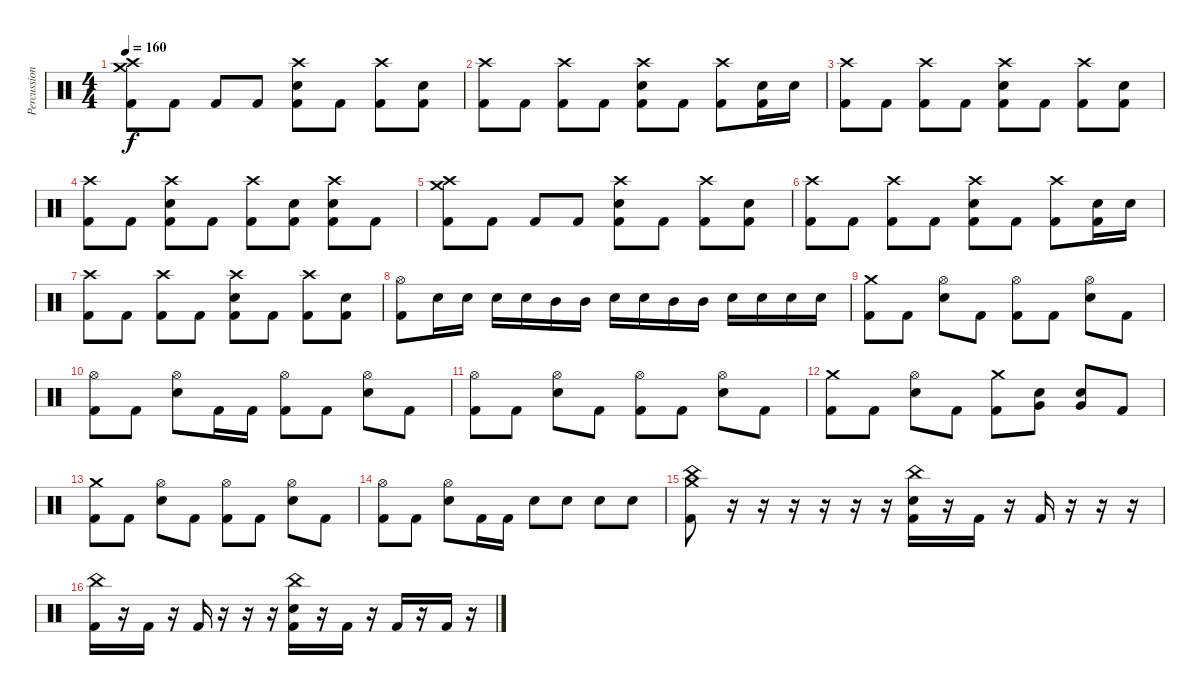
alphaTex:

\track ("Percussion" "Percussion") {instrument percussion}
\staff {score}
\articulation defaults
\ts (4 4)
\tempo 160
\clef neutral
\ks c
("Crash medium (hit)" "Crash high (hit)" "Kick (hit) 2").8{dy f} "Kick (hit) 2".8 "Kick (hit) 2".8 "Kick (hit) 2".8 ("Crash high (hit)" "Electric Snare (hit)" "Kick (hit) 2").8 "Kick (hit) 2".8 ("Crash high (hit)" "Kick (hit) 2").8 ("Electric Snare (hit)" "Kick (hit) 2").8 |
("Crash high (hit)" "Kick (hit) 2").8 "Kick (hit) 2".8 ("Crash high (hit)" "Kick (hit) 2").8 "Kick (hit) 2".8 ("Crash high (hit)" "Electric Snare (hit)" "Kick (hit) 2").8 "Kick (hit) 2".8 ("Crash high (hit)" "Kick (hit) 2").8 ("Electric Snare (hit)" "Kick (hit) 2").16 "Electric Snare (hit)".16 |
("Crash high (hit)" "Kick (hit) 2").8 "Kick (hit) 2".8 ("Crash high (hit)" "Kick (hit) 2").8 "Kick (hit) 2".8 ("Crash high (hit)" "Electric Snare (hit)" "Kick (hit) 2").8 "Kick (hit) 2".8 ("Crash high (hit)" "Kick (hit) 2").8 ("Electric Snare (hit)" "Kick (hit) 2").8 |
("Crash high (hit)" "Kick (hit) 2").8 "Kick (hit) 2".8 ("Crash high (hit)" "Electric Snare (hit)" "Kick (hit) 2").8 "Kick (hit) 2".8 ("Crash high (hit)" "Kick (hit) 2").8 ("Electric Snare (hit)" "Kick (hit) 2").8 ("Crash high (hit)" "Electric Snare (hit)" "Kick (hit) 2").8 "Kick (hit) 2".8 |
("Crash medium (hit)" "Crash high (hit)" "Kick (hit) 2").8 "Kick (hit) 2".8 "Kick (hit) 2".8 "Kick (hit) 2".8 ("Crash high (hit)" "Electric Snare (hit)" "Kick (hit) 2").8 "Kick (hit) 2".8 ("Crash high (hit)" "Kick (hit) 2").8 ("Electric Snare (hit)" "Kick (hit) 2").8 |
("Crash high (hit)" "Kick (hit) 2").8 "Kick (hit) 2".8 ("Crash high (hit)" "Kick (hit) 2").8 "Kick (hit) 2".8 ("Crash high (hit)" "Electric Snare (hit)" "Kick (hit) 2").8 "Kick (hit) 2".8 ("Crash high (hit)" "Kick (hit) 2").8 ("Electric Snare (hit)" "Kick (hit) 2").16 "Electric Snare (hit)".16 |
("Crash high (hit)" "Kick (hit) 2").8 "Kick (hit) 2".8 ("Crash high (hit)" "Kick (hit) 2").8 "Kick (hit) 2".8 ("Crash high (hit)" "Electric Snare (hit)" "Kick (hit) 2").8 "Kick (hit) 2".8 ("Crash high (hit)" "Kick (hit) 2").8 ("Electric Snare (hit)" "Kick (hit) 2").8 |
("Hi-Hat (open)" "Kick (hit) 2").8 "Electric Snare (hit)".16 "Electric Snare (hit)".16 "Electric Snare (hit)".16 "Electric Snare (hit)".16 "Mid Tom (hit)".16 "Mid Tom (hit)".16 "Electric Snare (hit)".16 "Electric Snare (hit)".16 "Mid Tom (hit)".16 "Mid Tom (hit)".16 "Electric Snare (hit)".16 "Electric Snare (hit)".16 "Electric Snare (hit)".16 "Electric Snare (hit)".16 |
("Crash medium (hit)" "Kick (hit) 2").8 "Kick (hit) 2".8 ("Hi-Hat (open)" "Electric Snare (hit)").8 "Kick (hit) 2".8 ("Hi-Hat (open)" "Kick (hit) 2").8 "Kick (hit) 2".8 ("Hi-Hat (open)" "Electric Snare (hit)").8 "Kick (hit) 2".8 |
("Hi-Hat (open)" "Kick (hit) 2").8 "Kick (hit) 2".8 ("Hi-Hat (open)" "Electric Snare (hit)").8 "Kick (hit) 2".16 "Kick (hit) 2".16 ("Hi-Hat (open)" "Kick (hit) 2").8 "Kick (hit) 2".8 ("Hi-Hat (open)" "Electric Snare (hit)").8 "Kick (hit) 2".8 |
("Hi-Hat (open)" "Kick (hit) 2").8 "Kick (hit) 2".8 ("Hi-Hat (open)" "Electric Snare (hit)").8 "Kick (hit) 2".8 ("Hi-Hat (open)" "Kick (hit) 2").8 "Kick (hit) 2".8 ("Hi-Hat (open)" "Electric Snare (hit)").8 "Kick (hit) 2".8 |
("Crash medium (hit)" "Kick (hit) 2").8 "Kick (hit) 2".8 ("Hi-Hat (open)" "Electric Snare (hit)").8 "Kick (hit) 2".8 ("Crash medium (hit)" "Kick (hit) 2").8 ("Electric Snare (hit)" "Very Low Tom (hit)").8 ("Electric Snare (hit)" "Very Low Tom (hit)").8 "Kick (hit) 2".8 |
("Crash medium (hit)" "Kick (hit) 2").8 "Kick (hit) 2".8 ("Hi-Hat (open)" "Electric Snare (hit)").8 "Kick (hit) 2".8 ("Hi-Hat (open)" "Kick (hit) 2").8 "Kick (hit) 2".8 ("Hi-Hat (open)" "Electric Snare (hit)").8 "Kick (hit) 2".8 |
("Hi-Hat (open)" "Kick (hit) 2").8 "Kick (hit) 2".8 ("Hi-Hat (open)" "Electric Snare (hit)").8 "Kick (hit) 2".16 "Kick (hit) 2".16 "Electric Snare (hit)".8 "Electric Snare (hit)".8 "Electric Snare (hit)".8 "Electric Snare (hit)".8 |
("Crash medium (hit)" "China (hit)" "Kick (hit) 2").8 r.16 r.16 r.16 r.16 r.16 r.16 ("China (hit)" "Electric Snare (hit)" "Kick (hit) 2").16 r.16 "Kick (hit) 2".16 r.16 "Kick (hit) 2".16 r.16 r.16 r.16 |
("China (hit)" "Kick (hit) 2").16 r.16 "Kick (hit) 2".16 r.16 "Kick (hit) 2".16 r.16 r.16 r.16 ("China (hit)" "Electric Snare (hit)" "Kick (hit) 2").16 r.16 "Kick (hit) 2".16 r.16 "Kick (hit) 2".16 r.16 "Kick (hit) 2".16 r.16
